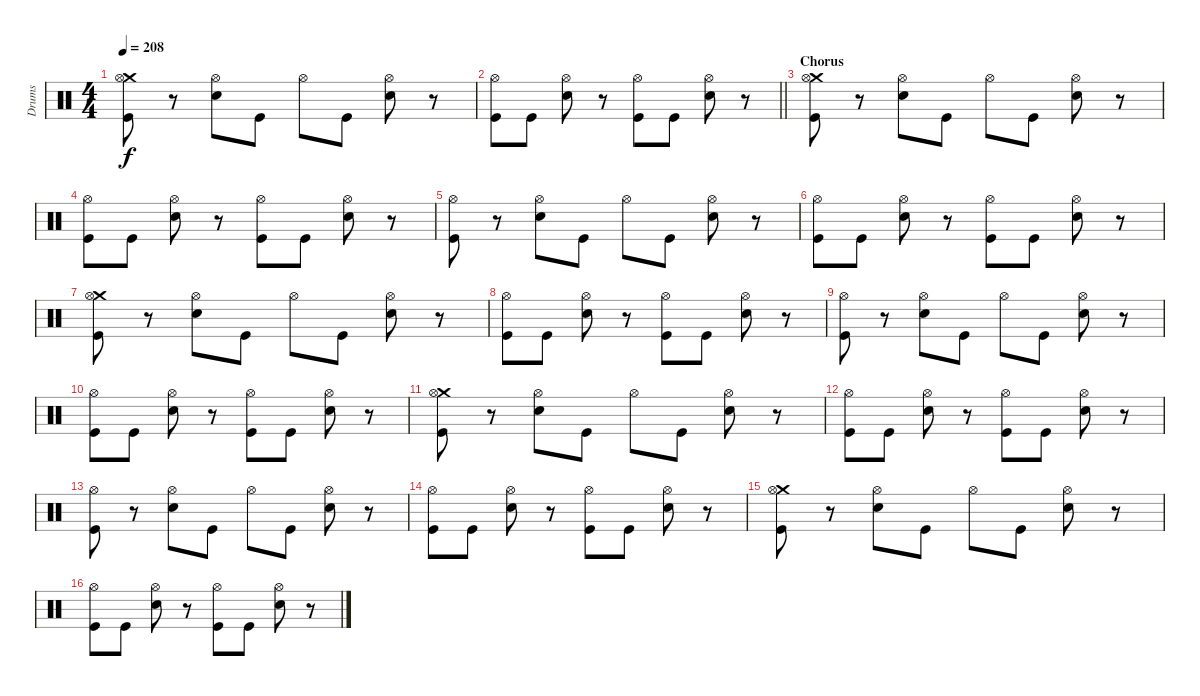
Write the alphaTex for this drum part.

\track ("Drums" "Drums") {instrument percussion}
\staff {score}
\articulation defaults
\ts (4 4)
\tempo 208
\clef neutral
\ks c
("Crash medium (hit)" "Hi-Hat (open)" "Kick (hit)").8{dy f} r.8 ("Hi-Hat (open)" "Electric Snare (hit)").8 "Kick (hit)".8 "Hi-Hat (open)".8 "Kick (hit)".8 ("Hi-Hat (open)" "Electric Snare (hit)").8 r.8 |
\barLineRight lightlight
("Hi-Hat (open)" "Kick (hit)").8 "Kick (hit)".8 ("Hi-Hat (open)" "Electric Snare (hit)").8 r.8 ("Hi-Hat (open)" "Kick (hit)").8 "Kick (hit)".8 ("Hi-Hat (open)" "Electric Snare (hit)").8 r.8 |
\section ("" "Chorus")
("Crash medium (hit)" "Hi-Hat (open)" "Kick (hit)").8 r.8 ("Hi-Hat (open)" "Electric Snare (hit)").8 "Kick (hit)".8 "Hi-Hat (open)".8 "Kick (hit)".8 ("Hi-Hat (open)" "Electric Snare (hit)").8 r.8 |
("Hi-Hat (open)" "Kick (hit)").8 "Kick (hit)".8 ("Hi-Hat (open)" "Electric Snare (hit)").8 r.8 ("Hi-Hat (open)" "Kick (hit)").8 "Kick (hit)".8 ("Hi-Hat (open)" "Electric Snare (hit)").8 r.8 |
("Hi-Hat (open)" "Kick (hit)").8 r.8 ("Hi-Hat (open)" "Electric Snare (hit)").8 "Kick (hit)".8 "Hi-Hat (open)".8 "Kick (hit)".8 ("Hi-Hat (open)" "Electric Snare (hit)").8 r.8 |
("Hi-Hat (open)" "Kick (hit)").8 "Kick (hit)".8 ("Hi-Hat (open)" "Electric Snare (hit)").8 r.8 ("Hi-Hat (open)" "Kick (hit)").8 "Kick (hit)".8 ("Hi-Hat (open)" "Electric Snare (hit)").8 r.8 |
("Crash medium (hit)" "Hi-Hat (open)" "Kick (hit)").8 r.8 ("Hi-Hat (open)" "Electric Snare (hit)").8 "Kick (hit)".8 "Hi-Hat (open)".8 "Kick (hit)".8 ("Hi-Hat (open)" "Electric Snare (hit)").8 r.8 |
("Hi-Hat (open)" "Kick (hit)").8 "Kick (hit)".8 ("Hi-Hat (open)" "Electric Snare (hit)").8 r.8 ("Hi-Hat (open)" "Kick (hit)").8 "Kick (hit)".8 ("Hi-Hat (open)" "Electric Snare (hit)").8 r.8 |
("Hi-Hat (open)" "Kick (hit)").8 r.8 ("Hi-Hat (open)" "Electric Snare (hit)").8 "Kick (hit)".8 "Hi-Hat (open)".8 "Kick (hit)".8 ("Hi-Hat (open)" "Electric Snare (hit)").8 r.8 |
("Hi-Hat (open)" "Kick (hit)").8 "Kick (hit)".8 ("Hi-Hat (open)" "Electric Snare (hit)").8 r.8 ("Hi-Hat (open)" "Kick (hit)").8 "Kick (hit)".8 ("Hi-Hat (open)" "Electric Snare (hit)").8 r.8 |
("Crash medium (hit)" "Hi-Hat (open)" "Kick (hit)").8 r.8 ("Hi-Hat (open)" "Electric Snare (hit)").8 "Kick (hit)".8 "Hi-Hat (open)".8 "Kick (hit)".8 ("Hi-Hat (open)" "Electric Snare (hit)").8 r.8 |
("Hi-Hat (open)" "Kick (hit)").8 "Kick (hit)".8 ("Hi-Hat (open)" "Electric Snare (hit)").8 r.8 ("Hi-Hat (open)" "Kick (hit)").8 "Kick (hit)".8 ("Hi-Hat (open)" "Electric Snare (hit)").8 r.8 |
("Hi-Hat (open)" "Kick (hit)").8 r.8 ("Hi-Hat (open)" "Electric Snare (hit)").8 "Kick (hit)".8 "Hi-Hat (open)".8 "Kick (hit)".8 ("Hi-Hat (open)" "Electric Snare (hit)").8 r.8 |
("Hi-Hat (open)" "Kick (hit)").8 "Kick (hit)".8 ("Hi-Hat (open)" "Electric Snare (hit)").8 r.8 ("Hi-Hat (open)" "Kick (hit)").8 "Kick (hit)".8 ("Hi-Hat (open)" "Electric Snare (hit)").8 r.8 |
("Crash medium (hit)" "Hi-Hat (open)" "Kick (hit)").8 r.8 ("Hi-Hat (open)" "Electric Snare (hit)").8 "Kick (hit)".8 "Hi-Hat (open)".8 "Kick (hit)".8 ("Hi-Hat (open)" "Electric Snare (hit)").8 r.8 |
("Hi-Hat (open)" "Kick (hit)").8 "Kick (hit)".8 ("Hi-Hat (open)" "Electric Snare (hit)").8 r.8 ("Hi-Hat (open)" "Kick (hit)").8 "Kick (hit)".8 ("Hi-Hat (open)" "Electric Snare (hit)").8 r.8
